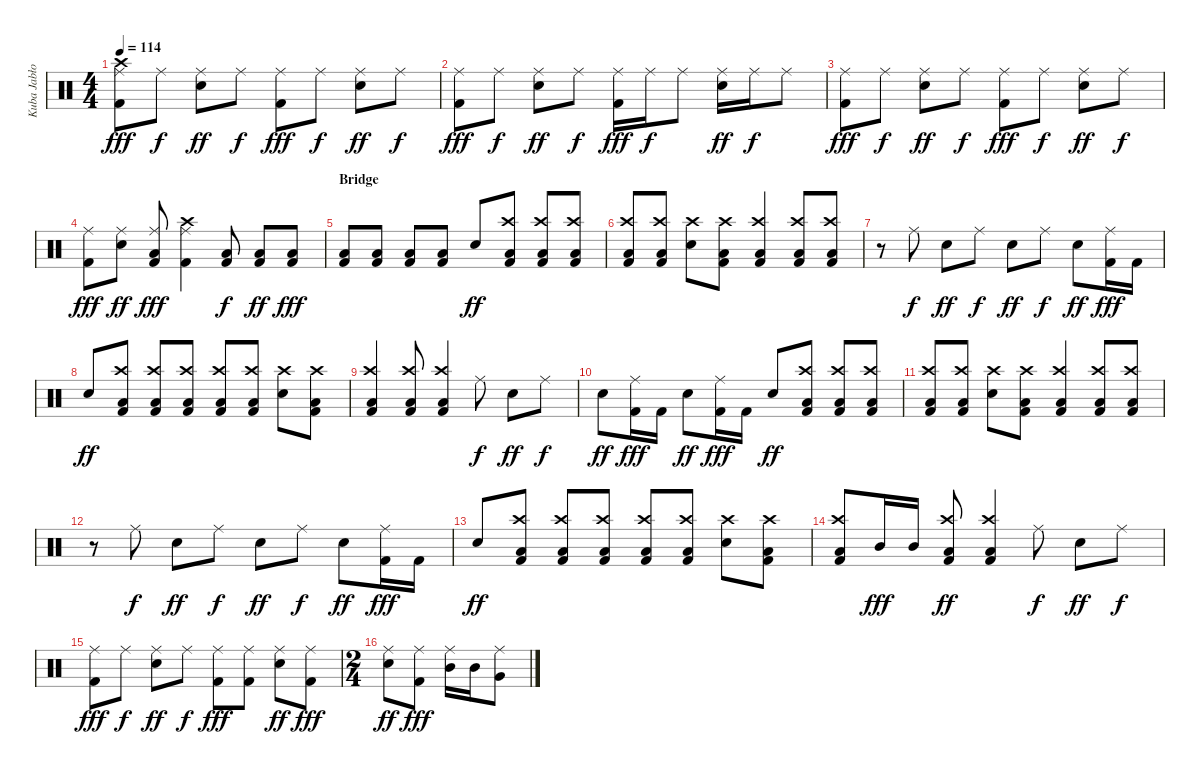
\track ("Kuba Jabłoński" "Kuba Jabło") {instrument percussion}
\staff {score}
\articulation defaults
\ts (4 4)
\tempo 114
\clef neutral
\ks c
("Kick (hit) 2" "Ride (middle)" "Crash high (hit)").8{dy fff} "Ride (middle)".8{dy f} ("Snare (hit) 2" "Ride (middle)").8{dy ff} "Ride (middle)".8{dy f} ("Kick (hit) 2" "Ride (middle)").8{dy fff} "Ride (middle)".8{dy f} ("Snare (hit) 2" "Ride (middle)").8{dy ff} "Ride (middle)".8{dy f} |
("Kick (hit) 2" "Ride (middle)").8{dy fff} "Ride (middle)".8{dy f} ("Snare (hit) 2" "Ride (middle)").8{dy ff} "Ride (middle)".8{dy f} ("Kick (hit) 2" "Ride (middle)").16{dy fff} "Ride (middle)".16{dy f} "Ride (middle)".8 ("Snare (hit) 2" "Ride (middle)").16{dy ff} "Ride (middle)".16{dy f} "Ride (middle)".8 |
("Kick (hit) 2" "Ride (middle)").8{dy fff} "Ride (middle)".8{dy f} ("Snare (hit) 2" "Ride (middle)").8{dy ff} "Ride (middle)".8{dy f} ("Kick (hit) 2" "Ride (middle)").8{dy fff} "Ride (middle)".8{dy f} ("Snare (hit) 2" "Ride (middle)").8{dy ff} "Ride (middle)".8{dy f} |
("Kick (hit) 2" "Ride (middle)").8{dy fff} ("Snare (hit) 2" "Ride (middle)").8{dy ff} ("Kick (hit) 2" "Ride (middle)" "Low Tom (hit)").8{dy fff} ("Kick (hit) 2" "Ride (middle)" "Crash high (hit)").4 ("Kick (hit) 2" "Low Floor Tom (hit)").8{dy f} ("Kick (hit) 2" "Low Floor Tom (hit)").8{dy ff} ("Kick (hit) 2" "Low Floor Tom (hit)").8{dy fff} |
\section ("" "Bridge")
("Kick (hit) 2" "Low Floor Tom (hit)").8 ("Kick (hit) 2" "Low Floor Tom (hit)").8 ("Kick (hit) 2" "Low Floor Tom (hit)").8 ("Kick (hit) 2" "Low Floor Tom (hit)").8 "Snare (hit) 2".8{dy ff} ("Kick (hit) 2" "Low Floor Tom (hit)" "Crash high (hit)").8 ("Kick (hit) 2" "Low Floor Tom (hit)" "Crash high (hit)").8 ("Kick (hit) 2" "Low Floor Tom (hit)" "Crash high (hit)").8 |
("Kick (hit) 2" "Low Floor Tom (hit)" "Crash high (hit)").8 ("Kick (hit) 2" "Low Floor Tom (hit)" "Crash high (hit)").8 ("Snare (hit) 2" "Crash high (hit)").8 ("Kick (hit) 2" "Low Floor Tom (hit)" "Crash high (hit)").8 ("Kick (hit) 2" "Low Floor Tom (hit)" "Crash high (hit)").4 ("Kick (hit) 2" "Low Floor Tom (hit)" "Crash high (hit)").8 ("Kick (hit) 2" "Low Floor Tom (hit)" "Crash high (hit)").8 |
r.8 "Ride (middle)".8{dy f} "Snare (hit) 2".8{dy ff} "Ride (middle)".8{dy f} "Snare (hit) 2".8{dy ff} "Ride (middle)".8{dy f} "Snare (hit) 2".8{dy ff} ("Kick (hit) 2" "Ride (middle)").16{dy fff} "Kick (hit) 2".16 |
"Snare (hit) 2".8{dy ff} ("Kick (hit) 2" "Low Floor Tom (hit)" "Crash high (hit)").8 ("Kick (hit) 2" "Low Floor Tom (hit)" "Crash high (hit)").8 ("Kick (hit) 2" "Low Floor Tom (hit)" "Crash high (hit)").8 ("Kick (hit) 2" "Low Floor Tom (hit)" "Crash high (hit)").8 ("Kick (hit) 2" "Low Floor Tom (hit)" "Crash high (hit)").8 ("Snare (hit) 2" "Crash high (hit)").8 ("Kick (hit) 2" "Low Floor Tom (hit)" "Crash high (hit)").8 |
("Kick (hit) 2" "Low Floor Tom (hit)" "Crash high (hit)").4 ("Kick (hit) 2" "Low Floor Tom (hit)" "Crash high (hit)").8 ("Kick (hit) 2" "Low Floor Tom (hit)" "Crash high (hit)").4 "Ride (middle)".8{dy f} "Snare (hit) 2".8{dy ff} "Ride (middle)".8{dy f} |
"Snare (hit) 2".8{dy ff} ("Kick (hit) 2" "Ride (middle)").16{dy fff} "Kick (hit) 2".16 "Snare (hit) 2".8{dy ff} ("Kick (hit) 2" "Ride (middle)").16{dy fff} "Kick (hit) 2".16 "Snare (hit) 2".8{dy ff} ("Kick (hit) 2" "Low Floor Tom (hit)" "Crash high (hit)").8 ("Kick (hit) 2" "Low Floor Tom (hit)" "Crash high (hit)").8 ("Kick (hit) 2" "Low Floor Tom (hit)" "Crash high (hit)").8 |
("Kick (hit) 2" "Low Floor Tom (hit)" "Crash high (hit)").8 ("Kick (hit) 2" "Low Floor Tom (hit)" "Crash high (hit)").8 ("Snare (hit) 2" "Crash high (hit)").8 ("Kick (hit) 2" "Low Floor Tom (hit)" "Crash high (hit)").8 ("Kick (hit) 2" "Low Floor Tom (hit)" "Crash high (hit)").4 ("Kick (hit) 2" "Low Floor Tom (hit)" "Crash high (hit)").8 ("Kick (hit) 2" "Low Floor Tom (hit)" "Crash high (hit)").8 |
r.8 "Ride (middle)".8{dy f} "Snare (hit) 2".8{dy ff} "Ride (middle)".8{dy f} "Snare (hit) 2".8{dy ff} "Ride (middle)".8{dy f} "Snare (hit) 2".8{dy ff} ("Kick (hit) 2" "Ride (middle)").16{dy fff} "Kick (hit) 2".16 |
"Snare (hit) 2".8{dy ff} ("Kick (hit) 2" "Low Floor Tom (hit)" "Crash high (hit)").8 ("Kick (hit) 2" "Low Floor Tom (hit)" "Crash high (hit)").8 ("Kick (hit) 2" "Low Floor Tom (hit)" "Crash high (hit)").8 ("Kick (hit) 2" "Low Floor Tom (hit)" "Crash high (hit)").8 ("Kick (hit) 2" "Low Floor Tom (hit)" "Crash high (hit)").8 ("Snare (hit) 2" "Crash high (hit)").8 ("Kick (hit) 2" "Low Floor Tom (hit)" "Crash high (hit)").8 |
("Kick (hit) 2" "Low Floor Tom (hit)" "Crash high (hit)").8 "Mid Tom (hit)".16{dy fff} "Mid Tom (hit)".16 ("Kick (hit) 2" "Low Floor Tom (hit)" "Crash high (hit)").8{dy ff} ("Kick (hit) 2" "Low Floor Tom (hit)" "Crash high (hit)").4 "Ride (middle)".8{dy f} "Snare (hit) 2".8{dy ff} "Ride (middle)".8{dy f} |
("Kick (hit) 2" "Ride (middle)").8{dy fff} "Ride (middle)".8{dy f} ("Snare (hit) 2" "Ride (middle)").8{dy ff} "Ride (middle)".8{dy f} ("Kick (hit) 2" "Ride (middle)").8{dy fff} ("Kick (hit) 2" "Ride (middle)").8 ("Snare (hit) 2" "Ride (middle)").8{dy ff} ("Kick (hit) 2" "Ride (middle)").8{dy fff} |
\ts (2 4)
("Snare (hit) 2" "Ride (middle)").8{dy ff} ("Kick (hit) 2" "Ride (middle)").8{dy fff} ("Ride (middle)" "Mid Tom (hit)").16 "Mid Tom (hit)".16 ("Ride (middle)" "Very Low Tom (hit)").8
